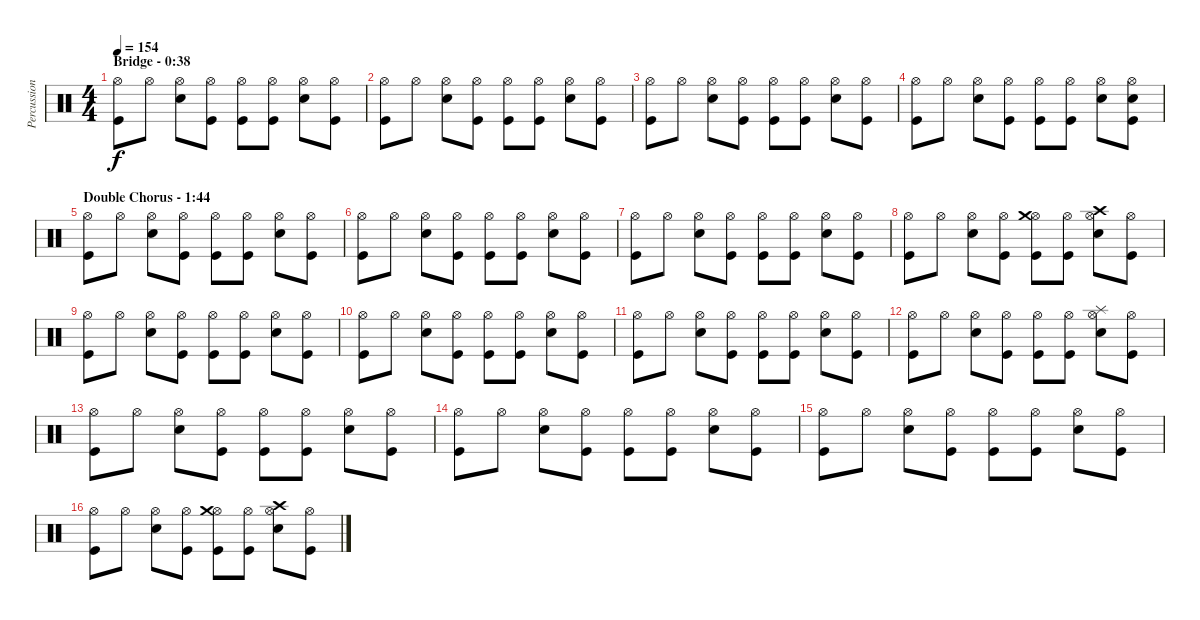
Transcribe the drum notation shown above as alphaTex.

\track ("Percussioni" "Percussion") {instrument percussion}
\staff {score}
\articulation defaults
\ts (4 4)
\section ("" "Bridge - 0:38")
\tempo 154
\clef neutral
\ks c
("Hi-Hat (open)" "Kick (hit)").8{dy f} "Hi-Hat (open)".8 ("Hi-Hat (open)" "Electric Snare (hit)").8 ("Hi-Hat (open)" "Kick (hit)").8 ("Hi-Hat (open)" "Kick (hit)").8 ("Hi-Hat (open)" "Kick (hit)").8 ("Hi-Hat (open)" "Electric Snare (hit)").8 ("Hi-Hat (open)" "Kick (hit)").8 |
("Hi-Hat (open)" "Kick (hit)").8 "Hi-Hat (open)".8 ("Hi-Hat (open)" "Electric Snare (hit)").8 ("Hi-Hat (open)" "Kick (hit)").8 ("Hi-Hat (open)" "Kick (hit)").8 ("Hi-Hat (open)" "Kick (hit)").8 ("Hi-Hat (open)" "Electric Snare (hit)").8 ("Hi-Hat (open)" "Kick (hit)").8 |
("Hi-Hat (open)" "Kick (hit)").8 "Hi-Hat (open)".8 ("Hi-Hat (open)" "Electric Snare (hit)").8 ("Hi-Hat (open)" "Kick (hit)").8 ("Hi-Hat (open)" "Kick (hit)").8 ("Hi-Hat (open)" "Kick (hit)").8 ("Hi-Hat (open)" "Electric Snare (hit)").8 ("Hi-Hat (open)" "Kick (hit)").8 |
("Hi-Hat (open)" "Kick (hit)").8 "Hi-Hat (open)".8 ("Hi-Hat (open)" "Electric Snare (hit)").8 ("Hi-Hat (open)" "Kick (hit)").8 ("Hi-Hat (open)" "Kick (hit)").8 ("Hi-Hat (open)" "Kick (hit)").8 ("Hi-Hat (open)" "Electric Snare (hit)").8 ("Hi-Hat (open)" "Electric Snare (hit)" "Kick (hit)").8 |
\section ("" "Double Chorus - 1:44")
("Hi-Hat (open)" "Kick (hit)").8 "Hi-Hat (open)".8 ("Hi-Hat (open)" "Electric Snare (hit)").8 ("Hi-Hat (open)" "Kick (hit)").8 ("Hi-Hat (open)" "Kick (hit)").8 ("Hi-Hat (open)" "Kick (hit)").8 ("Hi-Hat (open)" "Electric Snare (hit)").8 ("Hi-Hat (open)" "Kick (hit)").8 |
("Hi-Hat (open)" "Kick (hit)").8 "Hi-Hat (open)".8 ("Hi-Hat (open)" "Electric Snare (hit)").8 ("Hi-Hat (open)" "Kick (hit)").8 ("Hi-Hat (open)" "Kick (hit)").8 ("Hi-Hat (open)" "Kick (hit)").8 ("Hi-Hat (open)" "Electric Snare (hit)").8 ("Hi-Hat (open)" "Kick (hit)").8 |
("Hi-Hat (open)" "Kick (hit)").8 "Hi-Hat (open)".8 ("Hi-Hat (open)" "Electric Snare (hit)").8 ("Hi-Hat (open)" "Kick (hit)").8 ("Hi-Hat (open)" "Kick (hit)").8 ("Hi-Hat (open)" "Kick (hit)").8 ("Hi-Hat (open)" "Electric Snare (hit)").8 ("Hi-Hat (open)" "Kick (hit)").8 |
("Hi-Hat (open)" "Kick (hit)").8 "Hi-Hat (open)".8 ("Hi-Hat (open)" "Electric Snare (hit)").8 ("Hi-Hat (open)" "Kick (hit)").8 ("Hi-Hat (open)" "Crash medium (hit)" "Kick (hit)").8 ("Hi-Hat (open)" "Kick (hit)").8 ("Hi-Hat (open)" "Crash high (hit)" "Electric Snare (hit)").8 ("Hi-Hat (open)" "Kick (hit)").8 |
("Hi-Hat (open)" "Kick (hit)").8 "Hi-Hat (open)".8 ("Hi-Hat (open)" "Electric Snare (hit)").8 ("Hi-Hat (open)" "Kick (hit)").8 ("Hi-Hat (open)" "Kick (hit)").8 ("Hi-Hat (open)" "Kick (hit)").8 ("Hi-Hat (open)" "Electric Snare (hit)").8 ("Hi-Hat (open)" "Kick (hit)").8 |
("Hi-Hat (open)" "Kick (hit)").8 "Hi-Hat (open)".8 ("Hi-Hat (open)" "Electric Snare (hit)").8 ("Hi-Hat (open)" "Kick (hit)").8 ("Hi-Hat (open)" "Kick (hit)").8 ("Hi-Hat (open)" "Kick (hit)").8 ("Hi-Hat (open)" "Electric Snare (hit)").8 ("Hi-Hat (open)" "Kick (hit)").8 |
("Hi-Hat (open)" "Kick (hit)").8 "Hi-Hat (open)".8 ("Hi-Hat (open)" "Electric Snare (hit)").8 ("Hi-Hat (open)" "Kick (hit)").8 ("Hi-Hat (open)" "Kick (hit)").8 ("Hi-Hat (open)" "Kick (hit)").8 ("Hi-Hat (open)" "Electric Snare (hit)").8 ("Hi-Hat (open)" "Kick (hit)").8 |
("Hi-Hat (open)" "Kick (hit)").8 "Hi-Hat (open)".8 ("Hi-Hat (open)" "Electric Snare (hit)").8 ("Hi-Hat (open)" "Kick (hit)").8 ("Hi-Hat (open)" "Kick (hit)").8 ("Hi-Hat (open)" "Kick (hit)").8 ("Hi-Hat (open)" "Splash (hit)" "Electric Snare (hit)").8 ("Hi-Hat (open)" "Kick (hit)").8 |
("Hi-Hat (open)" "Kick (hit)").8 "Hi-Hat (open)".8 ("Hi-Hat (open)" "Electric Snare (hit)").8 ("Hi-Hat (open)" "Kick (hit)").8 ("Hi-Hat (open)" "Kick (hit)").8 ("Hi-Hat (open)" "Kick (hit)").8 ("Hi-Hat (open)" "Electric Snare (hit)").8 ("Hi-Hat (open)" "Kick (hit)").8 |
("Hi-Hat (open)" "Kick (hit)").8 "Hi-Hat (open)".8 ("Hi-Hat (open)" "Electric Snare (hit)").8 ("Hi-Hat (open)" "Kick (hit)").8 ("Hi-Hat (open)" "Kick (hit)").8 ("Hi-Hat (open)" "Kick (hit)").8 ("Hi-Hat (open)" "Electric Snare (hit)").8 ("Hi-Hat (open)" "Kick (hit)").8 |
("Hi-Hat (open)" "Kick (hit)").8 "Hi-Hat (open)".8 ("Hi-Hat (open)" "Electric Snare (hit)").8 ("Hi-Hat (open)" "Kick (hit)").8 ("Hi-Hat (open)" "Kick (hit)").8 ("Hi-Hat (open)" "Kick (hit)").8 ("Hi-Hat (open)" "Electric Snare (hit)").8 ("Hi-Hat (open)" "Kick (hit)").8 |
("Hi-Hat (open)" "Kick (hit)").8 "Hi-Hat (open)".8 ("Hi-Hat (open)" "Electric Snare (hit)").8 ("Hi-Hat (open)" "Kick (hit)").8 ("Hi-Hat (open)" "Crash medium (hit)" "Kick (hit)").8 ("Hi-Hat (open)" "Kick (hit)").8 ("Hi-Hat (open)" "Crash high (hit)" "Electric Snare (hit)").8 ("Hi-Hat (open)" "Kick (hit)").8
